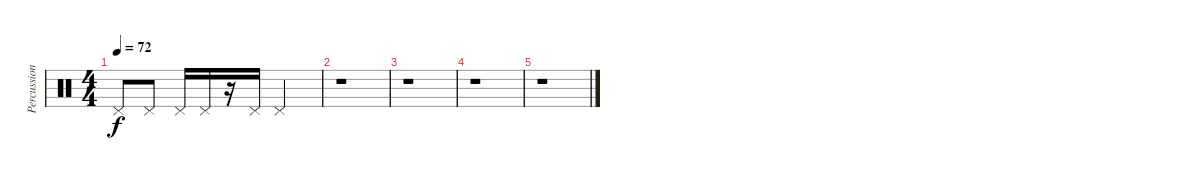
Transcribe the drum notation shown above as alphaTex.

\track ("Percussion" "Percussion") {instrument percussion}
\staff {score}
\articulation defaults
\ts (4 4)
\tempo 72
\clef neutral
\ks c "Pedal Hi-Hat (hit)".8{dy f} "Pedal Hi-Hat (hit)".8 "Pedal Hi-Hat (hit)".16 "Pedal Hi-Hat (hit)".16
r.16 "Pedal Hi-Hat (hit)".16 "Pedal Hi-Hat (hit)".2 |
r.1 |
r.1 |
r.1 |
r.1
